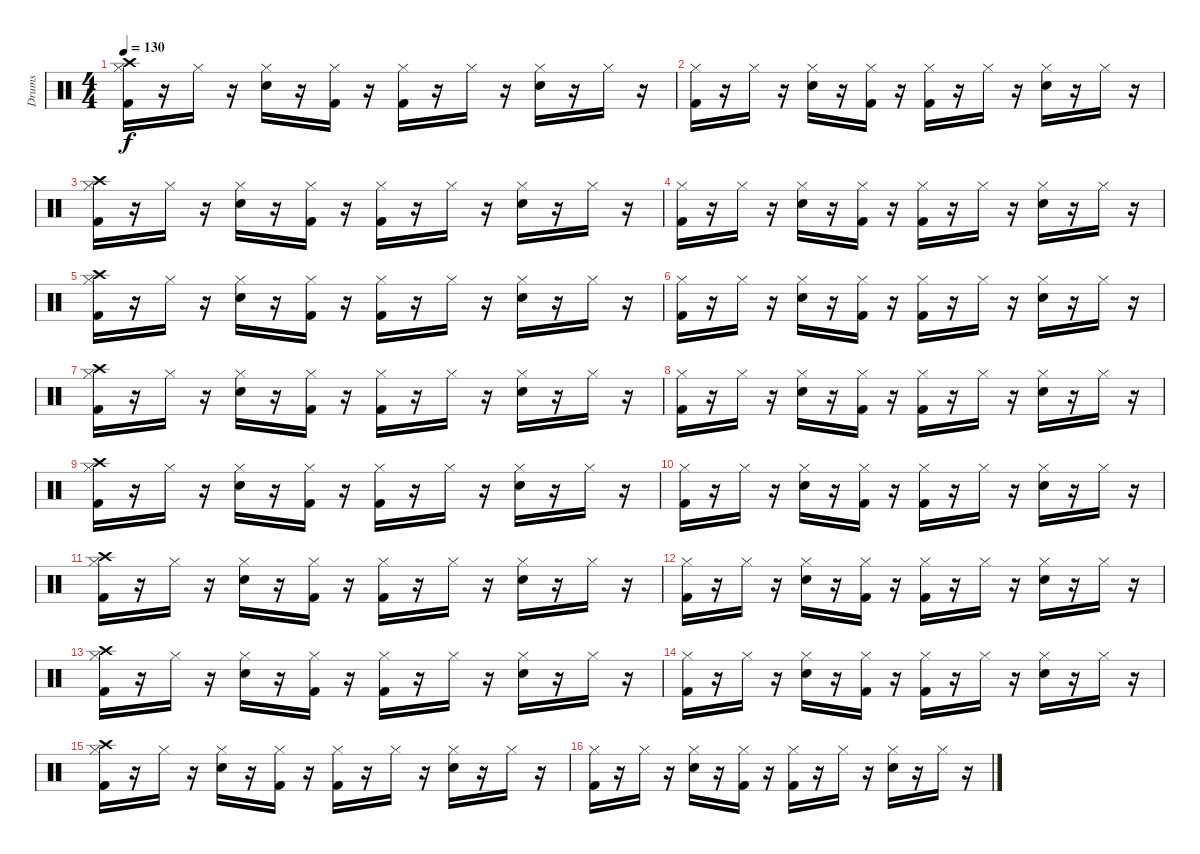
\track ("Drums" "Drums") {instrument percussion}
\staff {score}
\articulation defaults
\ts (4 4)
\tempo 130
\clef neutral
\ks c
("Crash high (hit)" "Hi-Hat (closed)" "Kick (hit) 2").16{dy f} r.16 "Hi-Hat (closed)".16 r.16 ("Hi-Hat (closed)" "Snare (hit) 2").16 r.16 ("Kick (hit) 2" "Hi-Hat (closed)").16 r.16 ("Hi-Hat (closed)" "Kick (hit) 2").16 r.16 "Hi-Hat (closed)".16 r.16 ("Snare (hit) 2" "Hi-Hat (closed)").16 r.16 "Hi-Hat (closed)".16 r.16 |
("Kick (hit) 2" "Hi-Hat (closed)").16 r.16 "Hi-Hat (closed)".16 r.16 ("Hi-Hat (closed)" "Snare (hit) 2").16 r.16 ("Kick (hit) 2" "Hi-Hat (closed)").16 r.16 ("Kick (hit) 2" "Hi-Hat (closed)").16 r.16 "Hi-Hat (closed)".16 r.16 ("Hi-Hat (closed)" "Snare (hit) 2").16 r.16 "Hi-Hat (closed)".16 r.16 |
("Kick (hit) 2" "Hi-Hat (closed)" "Crash high (hit)").16 r.16 "Hi-Hat (closed)".16 r.16 ("Snare (hit) 2" "Hi-Hat (closed)").16 r.16 ("Hi-Hat (closed)" "Kick (hit) 2").16 r.16 ("Hi-Hat (closed)" "Kick (hit) 2").16 r.16 "Hi-Hat (closed)".16 r.16 ("Snare (hit) 2" "Hi-Hat (closed)").16 r.16 "Hi-Hat (closed)".16 r.16 |
("Kick (hit) 2" "Hi-Hat (closed)").16 r.16 "Hi-Hat (closed)".16 r.16 ("Snare (hit) 2" "Hi-Hat (closed)").16 r.16 ("Kick (hit) 2" "Hi-Hat (closed)").16 r.16 ("Kick (hit) 2" "Hi-Hat (closed)").16 r.16 "Hi-Hat (closed)".16 r.16 ("Hi-Hat (closed)" "Snare (hit) 2").16 r.16 "Hi-Hat (closed)".16 r.16 |
("Kick (hit) 2" "Hi-Hat (closed)" "Crash high (hit)").16 r.16 "Hi-Hat (closed)".16 r.16 ("Snare (hit) 2" "Hi-Hat (closed)").16 r.16 ("Hi-Hat (closed)" "Kick (hit) 2").16 r.16 ("Hi-Hat (closed)" "Kick (hit) 2").16 r.16 "Hi-Hat (closed)".16 r.16 ("Snare (hit) 2" "Hi-Hat (closed)").16 r.16 "Hi-Hat (closed)".16 r.16 |
("Kick (hit) 2" "Hi-Hat (closed)").16 r.16 "Hi-Hat (closed)".16 r.16 ("Hi-Hat (closed)" "Snare (hit) 2").16 r.16 ("Hi-Hat (closed)" "Kick (hit) 2").16 r.16 ("Hi-Hat (closed)" "Kick (hit) 2").16 r.16 "Hi-Hat (closed)".16 r.16 ("Snare (hit) 2" "Hi-Hat (closed)").16 r.16 "Hi-Hat (closed)".16 r.16 |
("Hi-Hat (closed)" "Kick (hit) 2" "Crash high (hit)").16 r.16 "Hi-Hat (closed)".16 r.16 ("Snare (hit) 2" "Hi-Hat (closed)").16 r.16 ("Hi-Hat (closed)" "Kick (hit) 2").16 r.16 ("Kick (hit) 2" "Hi-Hat (closed)").16 r.16 "Hi-Hat (closed)".16 r.16 ("Hi-Hat (closed)" "Snare (hit) 2").16 r.16 "Hi-Hat (closed)".16 r.16 |
("Hi-Hat (closed)" "Kick (hit) 2").16 r.16 "Hi-Hat (closed)".16 r.16 ("Hi-Hat (closed)" "Snare (hit) 2").16 r.16 ("Kick (hit) 2" "Hi-Hat (closed)").16 r.16 ("Hi-Hat (closed)" "Kick (hit) 2").16 r.16 "Hi-Hat (closed)".16 r.16 ("Hi-Hat (closed)" "Snare (hit) 2").16 r.16 "Hi-Hat (closed)".16 r.16 |
("Hi-Hat (closed)" "Kick (hit) 2" "Crash high (hit)").16 r.16 "Hi-Hat (closed)".16 r.16 ("Hi-Hat (closed)" "Snare (hit) 2").16 r.16 ("Kick (hit) 2" "Hi-Hat (closed)").16 r.16 ("Hi-Hat (closed)" "Kick (hit) 2").16 r.16 "Hi-Hat (closed)".16 r.16 ("Hi-Hat (closed)" "Snare (hit) 2").16 r.16 "Hi-Hat (closed)".16 r.16 |
("Kick (hit) 2" "Hi-Hat (closed)").16 r.16 "Hi-Hat (closed)".16 r.16 ("Hi-Hat (closed)" "Snare (hit) 2").16 r.16 ("Hi-Hat (closed)" "Kick (hit) 2").16 r.16 ("Kick (hit) 2" "Hi-Hat (closed)").16 r.16 "Hi-Hat (closed)".16 r.16 ("Hi-Hat (closed)" "Snare (hit) 2").16 r.16 "Hi-Hat (closed)".16 r.16 |
("Kick (hit) 2" "Crash high (hit)" "Hi-Hat (closed)").16 r.16 "Hi-Hat (closed)".16 r.16 ("Hi-Hat (closed)" "Snare (hit) 2").16 r.16 ("Kick (hit) 2" "Hi-Hat (closed)").16 r.16 ("Kick (hit) 2" "Hi-Hat (closed)").16 r.16 "Hi-Hat (closed)".16 r.16 ("Hi-Hat (closed)" "Snare (hit) 2").16 r.16 "Hi-Hat (closed)".16 r.16 |
("Kick (hit) 2" "Hi-Hat (closed)").16 r.16 "Hi-Hat (closed)".16 r.16 ("Snare (hit) 2" "Hi-Hat (closed)").16 r.16 ("Kick (hit) 2" "Hi-Hat (closed)").16 r.16 ("Kick (hit) 2" "Hi-Hat (closed)").16 r.16 "Hi-Hat (closed)".16 r.16 ("Hi-Hat (closed)" "Snare (hit) 2").16 r.16 "Hi-Hat (closed)".16 r.16 |
("Hi-Hat (closed)" "Kick (hit) 2" "Crash high (hit)").16 r.16 "Hi-Hat (closed)".16 r.16 ("Hi-Hat (closed)" "Snare (hit) 2").16 r.16 ("Hi-Hat (closed)" "Kick (hit) 2").16 r.16 ("Hi-Hat (closed)" "Kick (hit) 2").16 r.16 "Hi-Hat (closed)".16 r.16 ("Snare (hit) 2" "Hi-Hat (closed)").16 r.16 "Hi-Hat (closed)".16 r.16 |
("Hi-Hat (closed)" "Kick (hit) 2").16 r.16 "Hi-Hat (closed)".16 r.16 ("Hi-Hat (closed)" "Snare (hit) 2").16 r.16 ("Hi-Hat (closed)" "Kick (hit) 2").16 r.16 ("Hi-Hat (closed)" "Kick (hit) 2").16 r.16 "Hi-Hat (closed)".16 r.16 ("Snare (hit) 2" "Hi-Hat (closed)").16 r.16 "Hi-Hat (closed)".16 r.16 |
("Hi-Hat (closed)" "Crash high (hit)" "Kick (hit) 2").16 r.16 "Hi-Hat (closed)".16 r.16 ("Snare (hit) 2" "Hi-Hat (closed)").16 r.16 ("Hi-Hat (closed)" "Kick (hit) 2").16 r.16 ("Kick (hit) 2" "Hi-Hat (closed)").16 r.16 "Hi-Hat (closed)".16 r.16 ("Snare (hit) 2" "Hi-Hat (closed)").16 r.16 "Hi-Hat (closed)".16 r.16 |
("Hi-Hat (closed)" "Kick (hit) 2").16 r.16 "Hi-Hat (closed)".16 r.16 ("Hi-Hat (closed)" "Snare (hit) 2").16 r.16 ("Hi-Hat (closed)" "Kick (hit) 2").16 r.16 ("Kick (hit) 2" "Hi-Hat (closed)").16 r.16 "Hi-Hat (closed)".16 r.16 ("Snare (hit) 2" "Hi-Hat (closed)").16 r.16 "Hi-Hat (closed)".16 r.16
